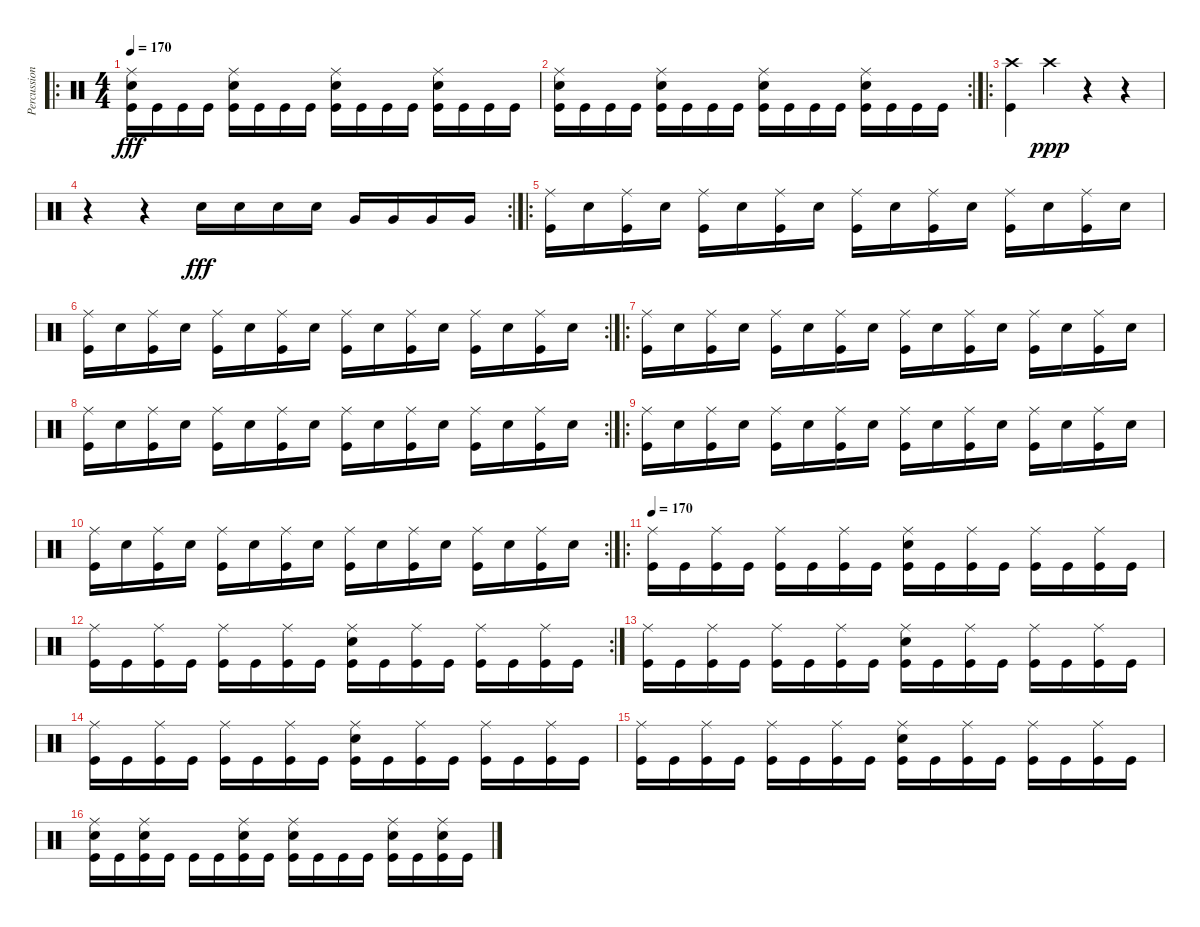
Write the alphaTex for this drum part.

\track ("Percussioni" "Percussion") {instrument percussion}
\staff {score}
\articulation defaults
\ro
\ts (4 4)
\tempo 170
\clef neutral
\ks c
("Ride (middle)" "Snare (hit) 2" "Kick (hit)").16{dy fff} "Kick (hit)".16 "Kick (hit)".16 "Kick (hit)".16 ("Ride (middle)" "Snare (hit) 2" "Kick (hit)").16 "Kick (hit)".16 "Kick (hit)".16 "Kick (hit)".16 ("Ride (middle)" "Snare (hit) 2" "Kick (hit)").16 "Kick (hit)".16 "Kick (hit)".16 "Kick (hit)".16 ("Ride (middle)" "Snare (hit) 2" "Kick (hit)").16 "Kick (hit)".16 "Kick (hit)".16 "Kick (hit)".16 |
\rc 2
("Ride (middle)" "Snare (hit) 2" "Kick (hit)").16 "Kick (hit)".16 "Kick (hit)".16 "Kick (hit)".16 ("Ride (middle)" "Snare (hit) 2" "Kick (hit)").16 "Kick (hit)".16 "Kick (hit)".16 "Kick (hit)".16 ("Ride (middle)" "Snare (hit) 2" "Kick (hit)").16 "Kick (hit)".16 "Kick (hit)".16 "Kick (hit)".16 ("Ride (middle)" "Snare (hit) 2" "Kick (hit)").16 "Kick (hit)".16 "Kick (hit)".16 "Kick (hit)".16 |
\ro
("Crash high (hit)" "Kick (hit)").4 "Crash high (hit)".4{dy ppp} r.4 r.4 |
\rc 2
r.4 r.4 "Snare (hit) 2".16{dy fff} "Snare (hit) 2".16 "Snare (hit) 2".16 "Snare (hit) 2".16 "Very Low Tom (hit)".16 "Very Low Tom (hit)".16 "Very Low Tom (hit)".16 "Very Low Tom (hit)".16 |
\ro
("Ride (middle)" "Kick (hit)").16 "Snare (hit) 2".16 ("Ride (middle)" "Kick (hit)").16 "Snare (hit) 2".16 ("Ride (middle)" "Kick (hit)").16 "Snare (hit) 2".16 ("Ride (middle)" "Kick (hit)").16 "Snare (hit) 2".16 ("Ride (middle)" "Kick (hit)").16 "Snare (hit) 2".16 ("Ride (middle)" "Kick (hit)").16 "Snare (hit) 2".16 ("Ride (middle)" "Kick (hit)").16 "Snare (hit) 2".16 ("Ride (middle)" "Kick (hit)").16 "Snare (hit) 2".16 |
\rc 2
("Ride (middle)" "Kick (hit)").16 "Snare (hit) 2".16 ("Ride (middle)" "Kick (hit)").16 "Snare (hit) 2".16 ("Ride (middle)" "Kick (hit)").16 "Snare (hit) 2".16 ("Ride (middle)" "Kick (hit)").16 "Snare (hit) 2".16 ("Ride (middle)" "Kick (hit)").16 "Snare (hit) 2".16 ("Ride (middle)" "Kick (hit)").16 "Snare (hit) 2".16 ("Ride (middle)" "Kick (hit)").16 "Snare (hit) 2".16 ("Ride (middle)" "Kick (hit)").16 "Snare (hit) 2".16 |
\ro
("Ride (middle)" "Kick (hit)").16 "Snare (hit) 2".16 ("Ride (middle)" "Kick (hit)").16 "Snare (hit) 2".16 ("Ride (middle)" "Kick (hit)").16 "Snare (hit) 2".16 ("Ride (middle)" "Kick (hit)").16 "Snare (hit) 2".16 ("Ride (middle)" "Kick (hit)").16 "Snare (hit) 2".16 ("Ride (middle)" "Kick (hit)").16 "Snare (hit) 2".16 ("Ride (middle)" "Kick (hit)").16 "Snare (hit) 2".16 ("Ride (middle)" "Kick (hit)").16 "Snare (hit) 2".16 |
\rc 2
("Ride (middle)" "Kick (hit)").16 "Snare (hit) 2".16 ("Ride (middle)" "Kick (hit)").16 "Snare (hit) 2".16 ("Ride (middle)" "Kick (hit)").16 "Snare (hit) 2".16 ("Ride (middle)" "Kick (hit)").16 "Snare (hit) 2".16 ("Ride (middle)" "Kick (hit)").16 "Snare (hit) 2".16 ("Ride (middle)" "Kick (hit)").16 "Snare (hit) 2".16 ("Ride (middle)" "Kick (hit)").16 "Snare (hit) 2".16 ("Ride (middle)" "Kick (hit)").16 "Snare (hit) 2".16 |
\ro
("Ride (middle)" "Kick (hit)").16 "Snare (hit) 2".16 ("Ride (middle)" "Kick (hit)").16 "Snare (hit) 2".16 ("Ride (middle)" "Kick (hit)").16 "Snare (hit) 2".16 ("Ride (middle)" "Kick (hit)").16 "Snare (hit) 2".16 ("Ride (middle)" "Kick (hit)").16 "Snare (hit) 2".16 ("Ride (middle)" "Kick (hit)").16 "Snare (hit) 2".16 ("Ride (middle)" "Kick (hit)").16 "Snare (hit) 2".16 ("Ride (middle)" "Kick (hit)").16 "Snare (hit) 2".16 |
\rc 2
("Ride (middle)" "Kick (hit)").16 "Snare (hit) 2".16 ("Ride (middle)" "Kick (hit)").16 "Snare (hit) 2".16 ("Ride (middle)" "Kick (hit)").16 "Snare (hit) 2".16 ("Ride (middle)" "Kick (hit)").16 "Snare (hit) 2".16 ("Ride (middle)" "Kick (hit)").16 "Snare (hit) 2".16 ("Ride (middle)" "Kick (hit)").16 "Snare (hit) 2".16 ("Ride (middle)" "Kick (hit)").16 "Snare (hit) 2".16 ("Ride (middle)" "Kick (hit)").16 "Snare (hit) 2".16 |
\ro
\tempo 170
("Ride (middle)" "Kick (hit)").16 "Kick (hit)".16 ("Ride (middle)" "Kick (hit)").16 "Kick (hit)".16 ("Ride (middle)" "Kick (hit)").16 "Kick (hit)".16 ("Ride (middle)" "Kick (hit)").16 "Kick (hit)".16 ("Ride (middle)" "Snare (hit) 2" "Kick (hit)").16 "Kick (hit)".16 ("Ride (middle)" "Kick (hit)").16 "Kick (hit)".16 ("Ride (middle)" "Kick (hit)").16 "Kick (hit)".16 ("Ride (middle)" "Kick (hit)").16 "Kick (hit)".16 |
\rc 2
("Ride (middle)" "Kick (hit)").16 "Kick (hit)".16 ("Ride (middle)" "Kick (hit)").16 "Kick (hit)".16 ("Ride (middle)" "Kick (hit)").16 "Kick (hit)".16 ("Ride (middle)" "Kick (hit)").16 "Kick (hit)".16 ("Ride (middle)" "Snare (hit) 2" "Kick (hit)").16 "Kick (hit)".16 ("Ride (middle)" "Kick (hit)").16 "Kick (hit)".16 ("Ride (middle)" "Kick (hit)").16 "Kick (hit)".16 ("Ride (middle)" "Kick (hit)").16 "Kick (hit)".16 |
("Ride (middle)" "Kick (hit)").16 "Kick (hit)".16 ("Ride (middle)" "Kick (hit)").16 "Kick (hit)".16 ("Ride (middle)" "Kick (hit)").16 "Kick (hit)".16 ("Ride (middle)" "Kick (hit)").16 "Kick (hit)".16 ("Ride (middle)" "Snare (hit) 2" "Kick (hit)").16 "Kick (hit)".16 ("Ride (middle)" "Kick (hit)").16 "Kick (hit)".16 ("Ride (middle)" "Kick (hit)").16 "Kick (hit)".16 ("Ride (middle)" "Kick (hit)").16 "Kick (hit)".16 |
("Ride (middle)" "Kick (hit)").16 "Kick (hit)".16 ("Ride (middle)" "Kick (hit)").16 "Kick (hit)".16 ("Ride (middle)" "Kick (hit)").16 "Kick (hit)".16 ("Ride (middle)" "Kick (hit)").16 "Kick (hit)".16 ("Ride (middle)" "Snare (hit) 2" "Kick (hit)").16 "Kick (hit)".16 ("Ride (middle)" "Kick (hit)").16 "Kick (hit)".16 ("Ride (middle)" "Kick (hit)").16 "Kick (hit)".16 ("Ride (middle)" "Kick (hit)").16 "Kick (hit)".16 |
("Ride (middle)" "Kick (hit)").16 "Kick (hit)".16 ("Ride (middle)" "Kick (hit)").16 "Kick (hit)".16 ("Ride (middle)" "Kick (hit)").16 "Kick (hit)".16 ("Ride (middle)" "Kick (hit)").16 "Kick (hit)".16 ("Ride (middle)" "Snare (hit) 2" "Kick (hit)").16 "Kick (hit)".16 ("Ride (middle)" "Kick (hit)").16 "Kick (hit)".16 ("Ride (middle)" "Kick (hit)").16 "Kick (hit)".16 ("Ride (middle)" "Kick (hit)").16 "Kick (hit)".16 |
("Ride (middle)" "Snare (hit) 2" "Kick (hit)").16 "Kick (hit)".16 ("Ride (middle)" "Snare (hit) 2" "Kick (hit)").16 "Kick (hit)".16 "Kick (hit)".16 "Kick (hit)".16 ("Ride (middle)" "Snare (hit) 2" "Kick (hit)").16 "Kick (hit)".16 ("Ride (middle)" "Snare (hit) 2" "Kick (hit)").16 "Kick (hit)".16 "Kick (hit)".16 "Kick (hit)".16 ("Ride (middle)" "Snare (hit) 2" "Kick (hit)").16 "Kick (hit)".16 ("Ride (middle)" "Snare (hit) 2" "Kick (hit)").16 "Kick (hit)".16
